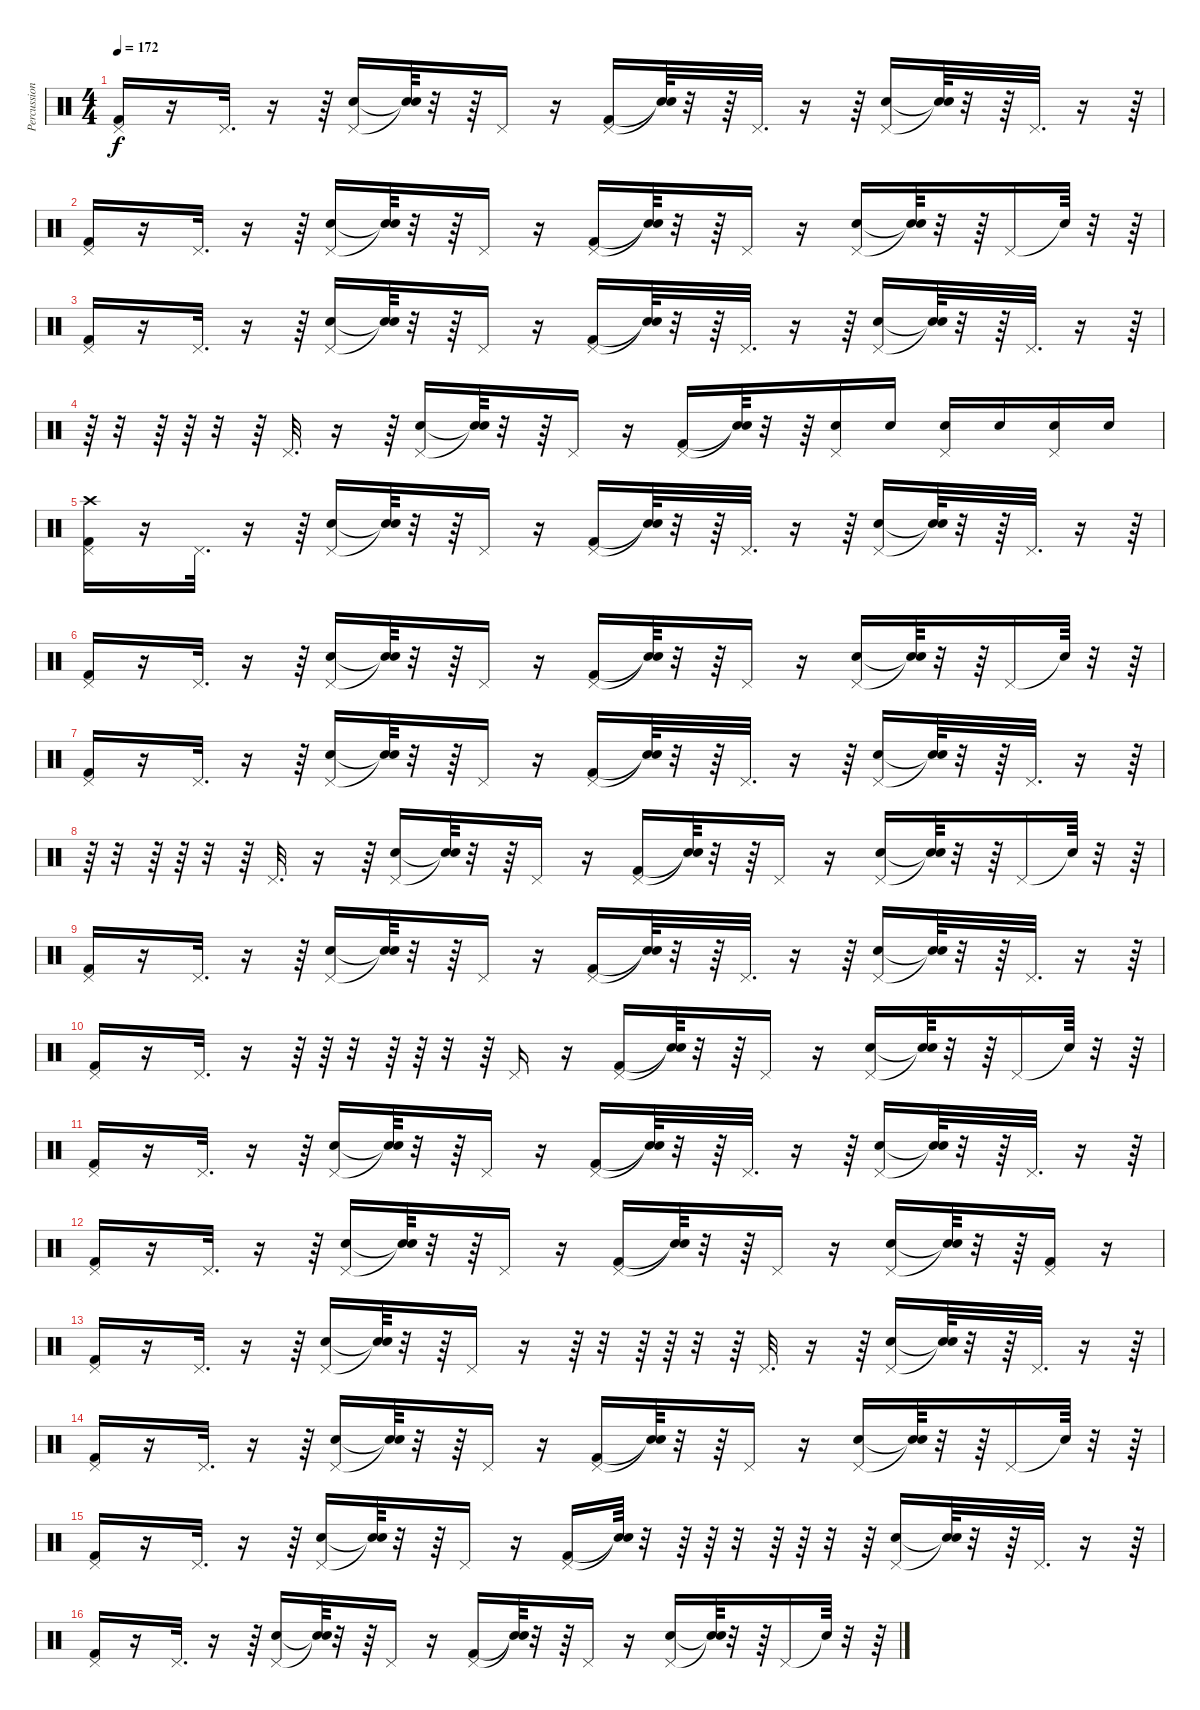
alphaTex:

\track ("Percussions" "Percussion") {instrument percussion}
\staff {score}
\articulation defaults
\ts (4 4)
\tempo 172
\clef neutral
\ks c
("Pedal Hi-Hat (hit)" "Kick (hit) 2").16{dy f} r.16 "Pedal Hi-Hat (hit)".32{d} r.16 r.64 ("Pedal Hi-Hat (hit)" "Snare (hit) 2").16 ("Snare (hit)"{t} "Snare (hit)"{t}).64 r.32 r.64 "Pedal Hi-Hat (hit)".16 r.16 ("Pedal Hi-Hat (hit)" "Kick (hit) 2").16 ("Snare (hit)"{t} "Snare (hit)"{t}).64 r.32 r.64 "Pedal Hi-Hat (hit)".32{d} r.16 r.64 ("Pedal Hi-Hat (hit)" "Snare (hit) 2").16 ("Snare (hit)"{t} "Snare (hit)"{t}).64 r.32 r.64 "Pedal Hi-Hat (hit)".32{d} r.16 r.64 |
("Pedal Hi-Hat (hit)" "Kick (hit) 2").16 r.16 "Pedal Hi-Hat (hit)".32{d} r.16 r.64 ("Pedal Hi-Hat (hit)" "Snare (hit) 2").16 ("Snare (hit)"{t} "Snare (hit)"{t}).64 r.32 r.64 "Pedal Hi-Hat (hit)".16 r.16 ("Pedal Hi-Hat (hit)" "Kick (hit) 2").16 ("Snare (hit)"{t} "Snare (hit)"{t}).64 r.32 r.64 "Pedal Hi-Hat (hit)".16 r.16 ("Pedal Hi-Hat (hit)" "Snare (hit) 2").16 ("Snare (hit)"{t} "Snare (hit)"{t}).64 r.32 r.64 "Pedal Hi-Hat (hit)".16 "Snare (hit)"{t}.64 r.32 r.64 |
("Pedal Hi-Hat (hit)" "Kick (hit) 2").16 r.16 "Pedal Hi-Hat (hit)".32{d} r.16 r.64 ("Pedal Hi-Hat (hit)" "Snare (hit) 2").16 ("Snare (hit)"{t} "Snare (hit)"{t}).64 r.32 r.64 "Pedal Hi-Hat (hit)".16 r.16 ("Pedal Hi-Hat (hit)" "Kick (hit) 2").16 ("Snare (hit)"{t} "Snare (hit)"{t}).64 r.32 r.64 "Pedal Hi-Hat (hit)".32{d} r.16 r.64 ("Pedal Hi-Hat (hit)" "Snare (hit) 2").16 ("Snare (hit)"{t} "Snare (hit)"{t}).64 r.32 r.64 "Pedal Hi-Hat (hit)".32{d} r.16 r.64 |
r.64 r.32 r.64 r.64 r.32 r.64 "Pedal Hi-Hat (hit)".32{d} r.16 r.64 ("Pedal Hi-Hat (hit)" "Snare (hit) 2").16 ("Snare (hit)"{t} "Snare (hit)"{t}).64 r.32 r.64 "Pedal Hi-Hat (hit)".16 r.16 ("Pedal Hi-Hat (hit)" "Kick (hit) 2").16 ("Snare (hit)"{t} "Snare (hit)"{t}).64 r.32 r.64 ("Pedal Hi-Hat (hit)" "Snare (hit) 2").16 "Snare (hit) 2".16 ("Snare (hit) 2" "Pedal Hi-Hat (hit)").16 "Snare (hit) 2".16 ("Snare (hit) 2" "Pedal Hi-Hat (hit)").16 "Snare (hit) 2".16 |
("Pedal Hi-Hat (hit)" "Crash high (hit)" "Kick (hit) 2").16 r.16 "Pedal Hi-Hat (hit)".32{d} r.16 r.64 ("Pedal Hi-Hat (hit)" "Snare (hit) 2").16 ("Snare (hit)"{t} "Snare (hit)"{t}).64 r.32 r.64 "Pedal Hi-Hat (hit)".16 r.16 ("Pedal Hi-Hat (hit)" "Kick (hit) 2").16 ("Snare (hit)"{t} "Snare (hit)"{t}).64 r.32 r.64 "Pedal Hi-Hat (hit)".32{d} r.16 r.64 ("Pedal Hi-Hat (hit)" "Snare (hit) 2").16 ("Snare (hit)"{t} "Snare (hit)"{t}).64 r.32 r.64 "Pedal Hi-Hat (hit)".32{d} r.16 r.64 |
("Pedal Hi-Hat (hit)" "Kick (hit) 2").16 r.16 "Pedal Hi-Hat (hit)".32{d} r.16 r.64 ("Pedal Hi-Hat (hit)" "Snare (hit) 2").16 ("Snare (hit)"{t} "Snare (hit)"{t}).64 r.32 r.64 "Pedal Hi-Hat (hit)".16 r.16 ("Pedal Hi-Hat (hit)" "Kick (hit) 2").16 ("Snare (hit)"{t} "Snare (hit)"{t}).64 r.32 r.64 "Pedal Hi-Hat (hit)".16 r.16 ("Pedal Hi-Hat (hit)" "Snare (hit) 2").16 ("Snare (hit)"{t} "Snare (hit)"{t}).64 r.32 r.64 "Pedal Hi-Hat (hit)".16 "Snare (hit)"{t}.64 r.32 r.64 |
("Pedal Hi-Hat (hit)" "Kick (hit) 2").16 r.16 "Pedal Hi-Hat (hit)".32{d} r.16 r.64 ("Pedal Hi-Hat (hit)" "Snare (hit) 2").16 ("Snare (hit)"{t} "Snare (hit)"{t}).64 r.32 r.64 "Pedal Hi-Hat (hit)".16 r.16 ("Pedal Hi-Hat (hit)" "Kick (hit) 2").16 ("Snare (hit)"{t} "Snare (hit)"{t}).64 r.32 r.64 "Pedal Hi-Hat (hit)".32{d} r.16 r.64 ("Pedal Hi-Hat (hit)" "Snare (hit) 2").16 ("Snare (hit)"{t} "Snare (hit)"{t}).64 r.32 r.64 "Pedal Hi-Hat (hit)".32{d} r.16 r.64 |
r.64 r.32 r.64 r.64 r.32 r.64 "Pedal Hi-Hat (hit)".32{d} r.16 r.64 ("Pedal Hi-Hat (hit)" "Snare (hit) 2").16 ("Snare (hit)"{t} "Snare (hit)"{t}).64 r.32 r.64 "Pedal Hi-Hat (hit)".16 r.16 ("Pedal Hi-Hat (hit)" "Kick (hit) 2").16 ("Snare (hit)"{t} "Snare (hit)"{t}).64 r.32 r.64 "Pedal Hi-Hat (hit)".16 r.16 ("Pedal Hi-Hat (hit)" "Snare (hit) 2").16 ("Snare (hit)"{t} "Snare (hit)"{t}).64 r.32 r.64 "Pedal Hi-Hat (hit)".16 "Snare (hit)"{t}.64 r.32 r.64 |
("Pedal Hi-Hat (hit)" "Kick (hit) 2").16 r.16 "Pedal Hi-Hat (hit)".32{d} r.16 r.64 ("Pedal Hi-Hat (hit)" "Snare (hit) 2").16 ("Snare (hit)"{t} "Snare (hit)"{t}).64 r.32 r.64 "Pedal Hi-Hat (hit)".16 r.16 ("Pedal Hi-Hat (hit)" "Kick (hit) 2").16 ("Snare (hit)"{t} "Snare (hit)"{t}).64 r.32 r.64 "Pedal Hi-Hat (hit)".32{d} r.16 r.64 ("Pedal Hi-Hat (hit)" "Snare (hit) 2").16 ("Snare (hit)"{t} "Snare (hit)"{t}).64 r.32 r.64 "Pedal Hi-Hat (hit)".32{d} r.16 r.64 |
("Pedal Hi-Hat (hit)" "Kick (hit) 2").16 r.16 "Pedal Hi-Hat (hit)".32{d} r.16 r.64 r.64 r.32 r.64 r.64 r.32 r.64 "Pedal Hi-Hat (hit)".16 r.16 ("Pedal Hi-Hat (hit)" "Kick (hit) 2").16 ("Snare (hit)"{t} "Snare (hit)"{t}).64 r.32 r.64 "Pedal Hi-Hat (hit)".16 r.16 ("Pedal Hi-Hat (hit)" "Snare (hit) 2").16 ("Snare (hit)"{t} "Snare (hit)"{t}).64 r.32 r.64 "Pedal Hi-Hat (hit)".16 "Snare (hit)"{t}.64 r.32 r.64 |
("Pedal Hi-Hat (hit)" "Kick (hit) 2").16 r.16 "Pedal Hi-Hat (hit)".32{d} r.16 r.64 ("Pedal Hi-Hat (hit)" "Snare (hit) 2").16 ("Snare (hit)"{t} "Snare (hit)"{t}).64 r.32 r.64 "Pedal Hi-Hat (hit)".16 r.16 ("Pedal Hi-Hat (hit)" "Kick (hit) 2").16 ("Snare (hit)"{t} "Snare (hit)"{t}).64 r.32 r.64 "Pedal Hi-Hat (hit)".32{d} r.16 r.64 ("Pedal Hi-Hat (hit)" "Snare (hit) 2").16 ("Snare (hit)"{t} "Snare (hit)"{t}).64 r.32 r.64 "Pedal Hi-Hat (hit)".32{d} r.16 r.64 |
("Pedal Hi-Hat (hit)" "Kick (hit) 2").16 r.16 "Pedal Hi-Hat (hit)".32{d} r.16 r.64 ("Pedal Hi-Hat (hit)" "Snare (hit) 2").16 ("Snare (hit)"{t} "Snare (hit)"{t}).64 r.32 r.64 "Pedal Hi-Hat (hit)".16 r.16 ("Pedal Hi-Hat (hit)" "Kick (hit) 2").16 ("Snare (hit)"{t} "Snare (hit)"{t}).64 r.32 r.64 "Pedal Hi-Hat (hit)".16 r.16 ("Pedal Hi-Hat (hit)" "Snare (hit) 2").16 ("Snare (hit)"{t} "Snare (hit)"{t}).64 r.32 r.64 ("Kick (hit) 2" "Pedal Hi-Hat (hit)").16 r.16 |
("Pedal Hi-Hat (hit)" "Kick (hit) 2").16 r.16 "Pedal Hi-Hat (hit)".32{d} r.16 r.64 ("Pedal Hi-Hat (hit)" "Snare (hit) 2").16 ("Snare (hit)"{t} "Snare (hit)"{t}).64 r.32 r.64 "Pedal Hi-Hat (hit)".16 r.16 r.64 r.32 r.64 r.64 r.32 r.64 "Pedal Hi-Hat (hit)".32{d} r.16 r.64 ("Pedal Hi-Hat (hit)" "Snare (hit) 2").16 ("Snare (hit)"{t} "Snare (hit)"{t}).64 r.32 r.64 "Pedal Hi-Hat (hit)".32{d} r.16 r.64 |
("Pedal Hi-Hat (hit)" "Kick (hit) 2").16 r.16 "Pedal Hi-Hat (hit)".32{d} r.16 r.64 ("Pedal Hi-Hat (hit)" "Snare (hit) 2").16 ("Snare (hit)"{t} "Snare (hit)"{t}).64 r.32 r.64 "Pedal Hi-Hat (hit)".16 r.16 ("Pedal Hi-Hat (hit)" "Kick (hit) 2").16 ("Snare (hit)"{t} "Snare (hit)"{t}).64 r.32 r.64 "Pedal Hi-Hat (hit)".16 r.16 ("Pedal Hi-Hat (hit)" "Snare (hit) 2").16 ("Snare (hit)"{t} "Snare (hit)"{t}).64 r.32 r.64 "Pedal Hi-Hat (hit)".16 "Snare (hit)"{t}.64 r.32 r.64 |
("Pedal Hi-Hat (hit)" "Kick (hit) 2").16 r.16 "Pedal Hi-Hat (hit)".32{d} r.16 r.64 ("Pedal Hi-Hat (hit)" "Snare (hit) 2").16 ("Snare (hit)"{t} "Snare (hit)"{t}).64 r.32 r.64 "Pedal Hi-Hat (hit)".16 r.16 ("Pedal Hi-Hat (hit)" "Kick (hit) 2").16 ("Snare (hit)"{t} "Snare (hit)"{t}).64 r.32 r.64 r.64 r.32 r.64 r.64 r.32 r.64 ("Pedal Hi-Hat (hit)" "Snare (hit) 2").16 ("Snare (hit)"{t} "Snare (hit)"{t}).64 r.32 r.64 "Pedal Hi-Hat (hit)".32{d} r.16 r.64 |
("Pedal Hi-Hat (hit)" "Kick (hit) 2").16 r.16 "Pedal Hi-Hat (hit)".32{d} r.16 r.64 ("Pedal Hi-Hat (hit)" "Snare (hit) 2").16 ("Snare (hit)"{t} "Snare (hit)"{t}).64 r.32 r.64 "Pedal Hi-Hat (hit)".16 r.16 ("Pedal Hi-Hat (hit)" "Kick (hit) 2").16 ("Snare (hit)"{t} "Snare (hit)"{t}).64 r.32 r.64 "Pedal Hi-Hat (hit)".16 r.16 ("Pedal Hi-Hat (hit)" "Snare (hit) 2").16 ("Snare (hit)"{t} "Snare (hit)"{t}).64 r.32 r.64 "Pedal Hi-Hat (hit)".16 "Snare (hit)"{t}.64 r.32 r.64
